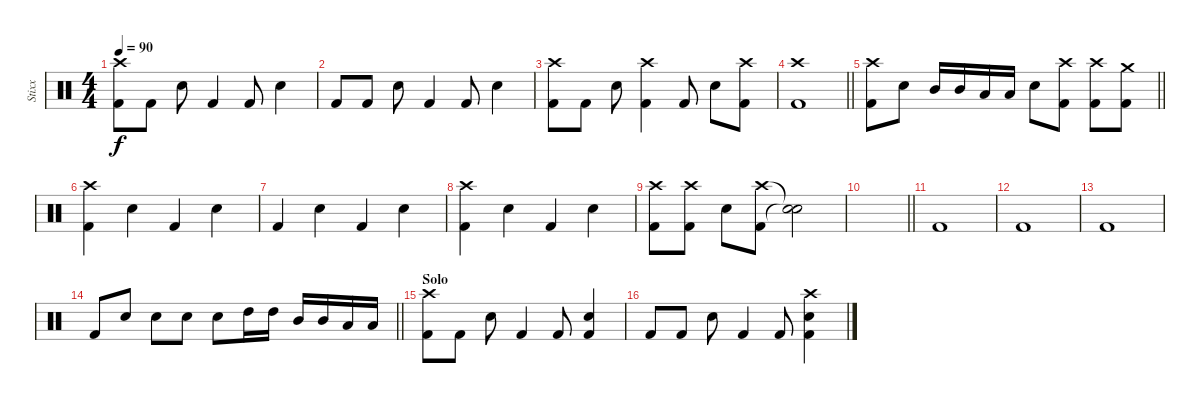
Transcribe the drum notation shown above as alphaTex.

\track ("Stixx" "Stixx") {instrument percussion}
\staff {score}
\articulation defaults
\ts (4 4)
\tempo 90
\clef neutral
\ks c
("Crash high (hit)" "Kick (hit) 2").8{dy f} "Kick (hit) 2".8 "Electric Snare (hit)".8 "Kick (hit) 2".4 "Kick (hit) 2".8 "Electric Snare (hit)".4 |
"Kick (hit) 2".8 "Kick (hit) 2".8 "Electric Snare (hit)".8 "Kick (hit) 2".4 "Kick (hit) 2".8 "Electric Snare (hit)".4 |
("Crash high (hit)" "Kick (hit) 2").8 "Kick (hit) 2".8 "Electric Snare (hit)".8 ("Crash high (hit)" "Kick (hit) 2").4 "Kick (hit) 2".8 "Electric Snare (hit)".8 ("Crash high (hit)" "Kick (hit) 2").8 |
\barLineRight lightlight
("Crash high (hit)" "Kick (hit) 2").1 |
\barLineRight lightlight
("Crash high (hit)" "Kick (hit) 2").8 "Electric Snare (hit)".8 "Mid Tom (hit)".16 "Mid Tom (hit)".16 "Low Tom (hit)".16 "Low Tom (hit)".16 "Electric Snare (hit)".8 ("Crash high (hit)" "Kick (hit) 2").8 ("Crash high (hit)" "Kick (hit) 2").8 ("Crash medium (hit)" "Kick (hit) 2").8 |
("Crash high (hit)" "Kick (hit) 2").4 "Snare (hit) 2".4 "Kick (hit) 2".4 "Snare (hit) 2".4 |
"Kick (hit) 2".4 "Snare (hit) 2".4 "Kick (hit) 2".4 "Snare (hit) 2".4 |
("Crash high (hit)" "Kick (hit) 2").4 "Snare (hit) 2".4 "Kick (hit) 2".4 "Snare (hit) 2".4 |
("Crash high (hit)" "Kick (hit) 2").8 ("Crash high (hit)" "Kick (hit) 2").8 "Electric Snare (hit)".8 ("Crash high (hit)" "Kick (hit) 2").8 ("Snare (hit)"{t} "Snare (hit)"{t}).2 |
\barLineRight lightlight
|
"Kick (hit) 2".1 |
"Kick (hit) 2".1 |
"Kick (hit) 2".1 |
\barLineRight lightlight "Kick (hit) 2".8 "Electric Snare (hit)".8 "Electric Snare (hit)".8 "Electric Snare (hit)".8 "Electric Snare (hit)".8 "High Tom (hit)".16 "High Tom (hit)".16 "Mid Tom (hit)".16 "Mid Tom (hit)".16 "Low Tom (hit)".16 "Low Tom (hit)".16
|
\section ("" "Solo")
("Crash high (hit)" "Kick (hit) 2").8 "Kick (hit) 2".8 "Electric Snare (hit)".8 "Kick (hit) 2".4 "Kick (hit) 2".8 ("Electric Snare (hit)" "Kick (hit) 2").4 |
"Kick (hit) 2".8 "Kick (hit) 2".8 "Electric Snare (hit)".8 "Kick (hit) 2".4 "Kick (hit) 2".8 ("Crash high (hit)" "Electric Snare (hit)" "Kick (hit) 2").4
